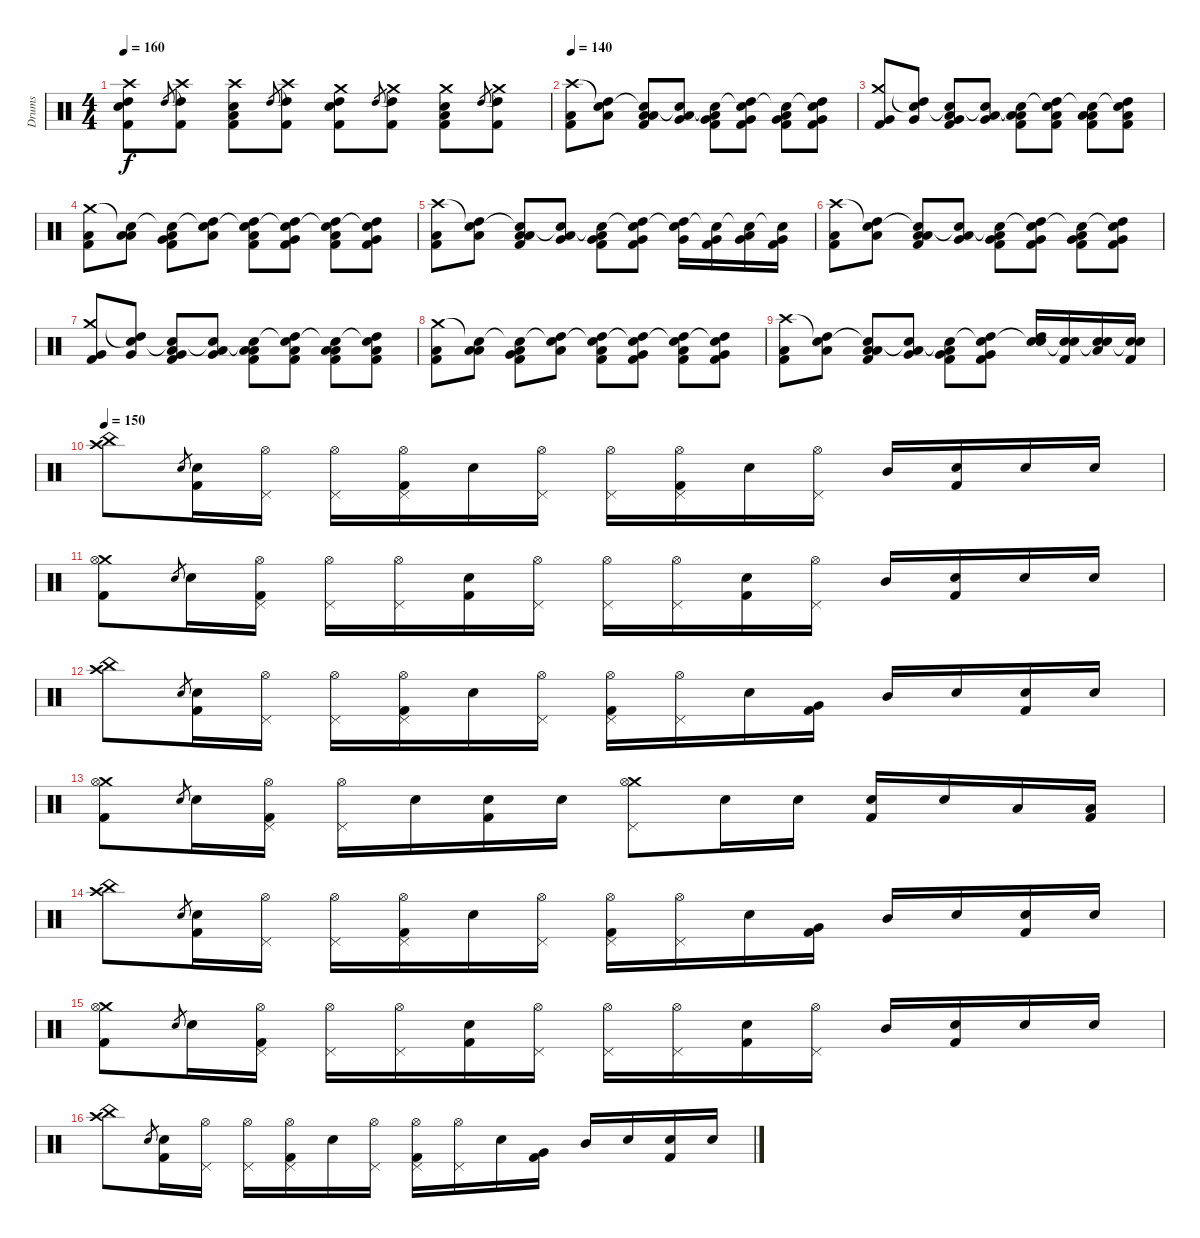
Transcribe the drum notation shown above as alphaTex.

\track ("Drums" "Drums") {instrument percussion}
\staff {score}
\articulation defaults
\ts (4 4)
\tempo 160
\clef neutral
\ks c
("Crash high (hit)" "High Tom (hit)" "Snare (hit) 2" "Kick (hit) 2").8{dy f} "High Tom (hit)".8{gr} ("Crash high (hit)"{t} "High Tom (hit)" "Kick (hit) 2").8 ("Crash high (hit)" "Low Tom (hit)" "Snare (hit) 2" "Kick (hit) 2").8 "High Tom (hit)".8{gr} ("Crash high (hit)"{t} "High Tom (hit)" "Kick (hit) 2").8 ("Crash medium (hit)" "High Tom (hit)" "Snare (hit) 2" "Kick (hit) 2").8 "High Tom (hit)".8{gr} ("Crash medium (hit)"{t} "High Tom (hit)" "Kick (hit) 2").8 ("Crash medium (hit)" "Low Tom (hit)" "Snare (hit) 2" "Kick (hit) 2").8 "High Tom (hit)".8{gr} ("Crash medium (hit)"{t} "High Tom (hit)" "Kick (hit) 2").8 |
\tempo 140
("Crash high (hit)" "Low Floor Tom (hit)" "Kick (hit) 2").8 ("Snare (hit)"{t} "Low Floor Tom (hit)" "High Tom (hit)").8 ("Snare (hit)"{t} "Low Floor Tom (hit)" "Low Tom (hit)" "Kick (hit) 2").8 ("Snare (hit)"{t} "Low Floor Tom (hit)" "Very Low Tom (hit)").8 ("Snare (hit)"{t} "Very Low Tom (hit)" "Low Tom (hit)" "Kick (hit) 2").8 ("Snare (hit)"{t} "Very Low Tom (hit)" "Kick (hit) 2" "High Tom (hit)").8 ("Snare (hit)"{t} "Very Low Tom (hit)" "Low Tom (hit)" "Kick (hit) 2").8 ("Snare (hit)"{t} "Very Low Tom (hit)" "Kick (hit) 2" "High Tom (hit)").8 |
("Crash medium (hit)" "Very Low Tom (hit)" "Kick (hit) 2").8 ("Snare (hit)"{t} "Very Low Tom (hit)" "High Tom (hit)").8 ("Snare (hit)"{t} "Very Low Tom (hit)" "Low Tom (hit)" "Kick (hit) 2").8 ("Snare (hit)"{t} "Very Low Tom (hit)" "Low Floor Tom (hit)").8 ("Snare (hit)"{t} "Low Floor Tom (hit)" "Low Tom (hit)" "Kick (hit) 2").8 ("Snare (hit)"{t} "Low Floor Tom (hit)" "Kick (hit) 2" "High Tom (hit)").8 ("Snare (hit)"{t} "Low Floor Tom (hit)" "Low Tom (hit)" "Kick (hit) 2").8 ("Snare (hit)"{t} "Low Floor Tom (hit)" "Kick (hit) 2" "High Tom (hit)").8 |
("Crash medium (hit)" "Low Tom (hit)" "Kick (hit) 2").8 ("Snare (hit)"{t} "Low Tom (hit)" "Low Floor Tom (hit)").8 ("Snare (hit)"{t} "Low Tom (hit)" "Very Low Tom (hit)" "Kick (hit) 2").8 ("Snare (hit)"{t} "Low Tom (hit)" "High Tom (hit)").8 ("Snare (hit)"{t} "High Tom (hit)" "Low Floor Tom (hit)" "Kick (hit) 2").8 ("Snare (hit)"{t} "High Tom (hit)" "Kick (hit) 2" "Very Low Tom (hit)").8 ("Snare (hit)"{t} "High Tom (hit)" "Low Floor Tom (hit)" "Kick (hit) 2").8 ("Snare (hit)"{t} "High Tom (hit)" "Kick (hit) 2" "Very Low Tom (hit)").8 |
("Crash high (hit)" "Low Floor Tom (hit)" "Kick (hit) 2").8 ("Snare (hit)"{t} "Low Floor Tom (hit)" "High Tom (hit)").8 ("Snare (hit)"{t} "Low Floor Tom (hit)" "Low Tom (hit)" "Kick (hit) 2").8 ("Snare (hit)"{t} "Low Floor Tom (hit)" "Very Low Tom (hit)").8 ("Snare (hit)"{t} "Very Low Tom (hit)" "Low Tom (hit)" "Kick (hit) 2").8 ("Snare (hit)"{t} "Very Low Tom (hit)" "Kick (hit) 2" "High Tom (hit)").8 ("Snare (hit)"{t} "High Tom (hit)" "Very Low Tom (hit)").16 ("Snare (hit)"{t} "Kick (hit) 2" "Very Low Tom (hit)").16 ("Snare (hit)"{t} "Low Tom (hit)" "Very Low Tom (hit)").16 ("Snare (hit)"{t} "Kick (hit) 2" "Very Low Tom (hit)").16 |
("Crash high (hit)" "Low Floor Tom (hit)" "Kick (hit) 2").8 ("Snare (hit)"{t} "Low Floor Tom (hit)" "High Tom (hit)").8 ("Snare (hit)"{t} "Low Floor Tom (hit)" "Low Tom (hit)" "Kick (hit) 2").8 ("Snare (hit)"{t} "Low Floor Tom (hit)" "Very Low Tom (hit)").8 ("Snare (hit)"{t} "Very Low Tom (hit)" "Low Tom (hit)" "Kick (hit) 2").8 ("Snare (hit)"{t} "Very Low Tom (hit)" "Kick (hit) 2" "High Tom (hit)").8 ("Snare (hit)"{t} "Very Low Tom (hit)" "Low Tom (hit)" "Kick (hit) 2").8 ("Snare (hit)"{t} "Very Low Tom (hit)" "Kick (hit) 2" "High Tom (hit)").8 |
("Crash medium (hit)" "Very Low Tom (hit)" "Kick (hit) 2").8 ("Snare (hit)"{t} "Very Low Tom (hit)" "High Tom (hit)").8 ("Snare (hit)"{t} "Very Low Tom (hit)" "Low Tom (hit)" "Kick (hit) 2").8 ("Snare (hit)"{t} "Very Low Tom (hit)" "Low Floor Tom (hit)").8 ("Snare (hit)"{t} "Low Floor Tom (hit)" "Low Tom (hit)" "Kick (hit) 2").8 ("Snare (hit)"{t} "Low Floor Tom (hit)" "Kick (hit) 2" "High Tom (hit)").8 ("Snare (hit)"{t} "Low Floor Tom (hit)" "Low Tom (hit)" "Kick (hit) 2").8 ("Snare (hit)"{t} "Low Floor Tom (hit)" "Kick (hit) 2" "High Tom (hit)").8 |
("Crash medium (hit)" "Low Tom (hit)" "Kick (hit) 2").8 ("Snare (hit)"{t} "Low Tom (hit)" "Low Floor Tom (hit)").8 ("Snare (hit)"{t} "Low Tom (hit)" "Very Low Tom (hit)" "Kick (hit) 2").8 ("Snare (hit)"{t} "Low Tom (hit)" "High Tom (hit)").8 ("Snare (hit)"{t} "High Tom (hit)" "Low Floor Tom (hit)" "Kick (hit) 2").8 ("Snare (hit)"{t} "High Tom (hit)" "Kick (hit) 2" "Very Low Tom (hit)").8 ("Snare (hit)"{t} "High Tom (hit)" "Low Floor Tom (hit)" "Kick (hit) 2").8 ("Snare (hit)"{t} "High Tom (hit)" "Kick (hit) 2" "Very Low Tom (hit)").8 |
("Crash high (hit)" "Low Floor Tom (hit)" "Kick (hit) 2").8 ("Snare (hit)"{t} "Low Floor Tom (hit)" "High Tom (hit)").8 ("Snare (hit)"{t} "Low Floor Tom (hit)" "Low Tom (hit)" "Kick (hit) 2").8 ("Snare (hit)"{t} "Low Floor Tom (hit)" "Very Low Tom (hit)").8 ("Snare (hit)"{t} "Very Low Tom (hit)" "Low Tom (hit)" "Kick (hit) 2").8 ("Snare (hit)"{t} "Very Low Tom (hit)" "Kick (hit) 2" "High Tom (hit)").8 ("Snare (hit)"{t} "High Tom (hit)" "Snare (hit) 2").16 ("Snare (hit)"{t} "Kick (hit) 2" "Snare (hit) 2").16 ("Snare (hit)"{t} "Low Tom (hit)" "Snare (hit) 2").16 ("Snare (hit)"{t} "Kick (hit) 2" "Snare (hit) 2").16 |
\tempo 150
("Crash high (hit)" "China (hit)").8{volume 12} "Snare (hit) 2".8{gr} ("Snare (hit) 2" "Kick (hit) 2").16 ("Hi-Hat (open)" "Pedal Hi-Hat (hit)").16 ("Hi-Hat (open)" "Pedal Hi-Hat (hit)").16 ("Hi-Hat (open)" "Pedal Hi-Hat (hit)" "Kick (hit) 2").16 "Snare (hit) 2".16 ("Hi-Hat (open)" "Pedal Hi-Hat (hit)").16 ("Hi-Hat (open)" "Pedal Hi-Hat (hit)").16 ("Hi-Hat (open)" "Pedal Hi-Hat (hit)" "Kick (hit) 2").16 "Snare (hit) 2".16 ("Hi-Hat (open)" "Pedal Hi-Hat (hit)").16 "Mid Tom (hit)".16 ("Snare (hit) 2" "Kick (hit) 2").16 "Snare (hit) 2".16 "Snare (hit) 2".16 |
("Crash medium (hit)" "Kick (hit) 2" "Hi-Hat (open)").8 "Snare (hit) 2".8{gr} "Snare (hit) 2".16 ("Hi-Hat (open)" "Pedal Hi-Hat (hit)" "Kick (hit) 2").16 ("Hi-Hat (open)" "Pedal Hi-Hat (hit)").16 ("Hi-Hat (open)" "Pedal Hi-Hat (hit)").16 ("Snare (hit) 2" "Kick (hit) 2").16 ("Hi-Hat (open)" "Pedal Hi-Hat (hit)").16 ("Hi-Hat (open)" "Pedal Hi-Hat (hit)").16 ("Hi-Hat (open)" "Pedal Hi-Hat (hit)").16 ("Snare (hit) 2" "Kick (hit) 2").16 ("Hi-Hat (open)" "Pedal Hi-Hat (hit)").16 "Mid Tom (hit)".16 ("Snare (hit) 2" "Kick (hit) 2").16 "Snare (hit) 2".16 "Snare (hit) 2".16 |
("Crash high (hit)" "China (hit)").8 "Snare (hit) 2".8{gr} ("Snare (hit) 2" "Kick (hit) 2").16 ("Hi-Hat (open)" "Pedal Hi-Hat (hit)").16 ("Hi-Hat (open)" "Pedal Hi-Hat (hit)").16 ("Hi-Hat (open)" "Pedal Hi-Hat (hit)" "Kick (hit) 2").16 "Snare (hit) 2".16 ("Hi-Hat (open)" "Pedal Hi-Hat (hit)").16 ("Hi-Hat (open)" "Pedal Hi-Hat (hit)" "Kick (hit) 2").16 ("Hi-Hat (open)" "Pedal Hi-Hat (hit)").16 "Snare (hit) 2".16 ("Very Low Tom (hit)" "Kick (hit) 2").16 "Mid Tom (hit)".16 "Snare (hit) 2".16 ("Snare (hit) 2" "Kick (hit) 2").16 "Snare (hit) 2".16 |
("Crash medium (hit)" "Kick (hit) 2" "Hi-Hat (open)").8 "Snare (hit) 2".8{gr} "Snare (hit) 2".16 ("Hi-Hat (open)" "Pedal Hi-Hat (hit)" "Kick (hit) 2").16 ("Hi-Hat (open)" "Pedal Hi-Hat (hit)").16 "Snare (hit) 2".16 ("Snare (hit) 2" "Kick (hit) 2").16 "Snare (hit) 2".16 ("Crash medium (hit)" "Hi-Hat (open)" "Pedal Hi-Hat (hit)").8 "Snare (hit) 2".16 "Snare (hit) 2".16 ("Snare (hit) 2" "Kick (hit) 2").16 "Snare (hit) 2".16 "Low Tom (hit)".16 ("Low Tom (hit)" "Kick (hit) 2").16 |
("Crash high (hit)" "China (hit)").8 "Snare (hit) 2".8{gr} ("Snare (hit) 2" "Kick (hit) 2").16 ("Hi-Hat (open)" "Pedal Hi-Hat (hit)").16 ("Hi-Hat (open)" "Pedal Hi-Hat (hit)").16 ("Hi-Hat (open)" "Pedal Hi-Hat (hit)" "Kick (hit) 2").16 "Snare (hit) 2".16 ("Hi-Hat (open)" "Pedal Hi-Hat (hit)").16 ("Hi-Hat (open)" "Pedal Hi-Hat (hit)" "Kick (hit) 2").16 ("Hi-Hat (open)" "Pedal Hi-Hat (hit)").16 "Snare (hit) 2".16 ("Very Low Tom (hit)" "Kick (hit) 2").16 "Mid Tom (hit)".16 "Snare (hit) 2".16 ("Snare (hit) 2" "Kick (hit) 2").16 "Snare (hit) 2".16 |
("Crash medium (hit)" "Kick (hit) 2" "Hi-Hat (open)").8 "Snare (hit) 2".8{gr} "Snare (hit) 2".16 ("Hi-Hat (open)" "Pedal Hi-Hat (hit)" "Kick (hit) 2").16 ("Hi-Hat (open)" "Pedal Hi-Hat (hit)").16 ("Hi-Hat (open)" "Pedal Hi-Hat (hit)").16 ("Snare (hit) 2" "Kick (hit) 2").16 ("Hi-Hat (open)" "Pedal Hi-Hat (hit)").16 ("Hi-Hat (open)" "Pedal Hi-Hat (hit)").16 ("Hi-Hat (open)" "Pedal Hi-Hat (hit)").16 ("Snare (hit) 2" "Kick (hit) 2").16 ("Hi-Hat (open)" "Pedal Hi-Hat (hit)").16 "Mid Tom (hit)".16 ("Snare (hit) 2" "Kick (hit) 2").16 "Snare (hit) 2".16 "Snare (hit) 2".16 |
("Crash high (hit)" "China (hit)").8 "Snare (hit) 2".8{gr} ("Snare (hit) 2" "Kick (hit) 2").16 ("Hi-Hat (open)" "Pedal Hi-Hat (hit)").16 ("Hi-Hat (open)" "Pedal Hi-Hat (hit)").16 ("Hi-Hat (open)" "Pedal Hi-Hat (hit)" "Kick (hit) 2").16 "Snare (hit) 2".16 ("Hi-Hat (open)" "Pedal Hi-Hat (hit)").16 ("Hi-Hat (open)" "Pedal Hi-Hat (hit)" "Kick (hit) 2").16 ("Hi-Hat (open)" "Pedal Hi-Hat (hit)").16 "Snare (hit) 2".16 ("Very Low Tom (hit)" "Kick (hit) 2").16 "Mid Tom (hit)".16 "Snare (hit) 2".16 ("Snare (hit) 2" "Kick (hit) 2").16 "Snare (hit) 2".16
